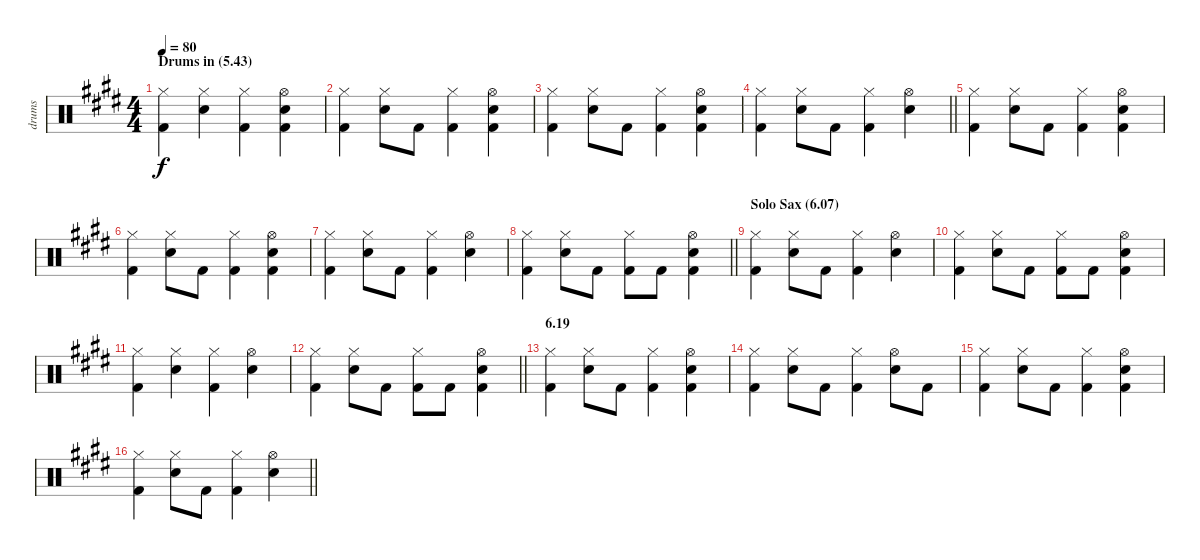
\track ("drums" "drums") {instrument percussion}
\staff {score}
\articulation defaults
\ts (4 4)
\section ("" "Drums in (5.43)")
\tempo 80
\clef neutral
\ks e
("Hi-Hat (closed)" "Kick (hit) 2").4{dy f} ("Hi-Hat (closed)" "Electric Snare (hit)").4 ("Hi-Hat (closed)" "Kick (hit) 2").4 ("Hi-Hat (open)" "Electric Snare (hit)" "Kick (hit) 2").4 |
("Hi-Hat (closed)" "Kick (hit) 2").4 ("Hi-Hat (closed)" "Electric Snare (hit)").8 "Kick (hit) 2".8 ("Hi-Hat (closed)" "Kick (hit) 2").4 ("Hi-Hat (open)" "Electric Snare (hit)" "Kick (hit) 2").4 |
("Hi-Hat (closed)" "Kick (hit) 2").4 ("Hi-Hat (closed)" "Electric Snare (hit)").8 "Kick (hit) 2".8 ("Hi-Hat (closed)" "Kick (hit) 2").4 ("Hi-Hat (open)" "Electric Snare (hit)" "Kick (hit) 2").4 |
\barLineRight lightlight
("Hi-Hat (closed)" "Kick (hit) 2").4 ("Hi-Hat (closed)" "Electric Snare (hit)").8 "Kick (hit) 2".8 ("Hi-Hat (closed)" "Kick (hit) 2").4 ("Hi-Hat (open)" "Electric Snare (hit)").4 |
("Hi-Hat (closed)" "Kick (hit) 2").4 ("Hi-Hat (closed)" "Electric Snare (hit)").8 "Kick (hit) 2".8 ("Hi-Hat (closed)" "Kick (hit) 2").4 ("Hi-Hat (open)" "Electric Snare (hit)" "Kick (hit) 2").4 |
("Hi-Hat (closed)" "Kick (hit) 2").4 ("Hi-Hat (closed)" "Electric Snare (hit)").8 "Kick (hit) 2".8 ("Hi-Hat (closed)" "Kick (hit) 2").4 ("Hi-Hat (open)" "Electric Snare (hit)" "Kick (hit) 2").4 |
("Hi-Hat (closed)" "Kick (hit) 2").4 ("Hi-Hat (closed)" "Electric Snare (hit)").8 "Kick (hit) 2".8 ("Hi-Hat (closed)" "Kick (hit) 2").4 ("Hi-Hat (open)" "Electric Snare (hit)").4 |
\barLineRight lightlight
("Hi-Hat (closed)" "Kick (hit) 2").4 ("Hi-Hat (closed)" "Electric Snare (hit)").8 "Kick (hit) 2".8 ("Hi-Hat (closed)" "Kick (hit) 2").8 "Kick (hit) 2".8 ("Hi-Hat (open)" "Electric Snare (hit)" "Kick (hit) 2").4 |
\section ("" "Solo Sax (6.07)")
("Hi-Hat (closed)" "Kick (hit) 2").4 ("Hi-Hat (closed)" "Electric Snare (hit)").8 "Kick (hit) 2".8 ("Hi-Hat (closed)" "Kick (hit) 2").4 ("Hi-Hat (open)" "Electric Snare (hit)").4 |
("Hi-Hat (closed)" "Kick (hit) 2").4 ("Hi-Hat (closed)" "Electric Snare (hit)").8 "Kick (hit) 2".8 ("Hi-Hat (closed)" "Kick (hit) 2").8 "Kick (hit) 2".8 ("Hi-Hat (open)" "Electric Snare (hit)" "Kick (hit) 2").4 |
("Hi-Hat (closed)" "Kick (hit) 2").4 ("Hi-Hat (closed)" "Electric Snare (hit)").4 ("Hi-Hat (closed)" "Kick (hit) 2").4 ("Hi-Hat (open)" "Electric Snare (hit)").4 |
\barLineRight lightlight
("Hi-Hat (closed)" "Kick (hit) 2").4 ("Hi-Hat (closed)" "Electric Snare (hit)").8 "Kick (hit) 2".8 ("Hi-Hat (closed)" "Kick (hit) 2").8 "Kick (hit) 2".8 ("Hi-Hat (open)" "Electric Snare (hit)" "Kick (hit) 2").4 |
\section ("" "6.19")
("Hi-Hat (closed)" "Kick (hit) 2").4 ("Hi-Hat (closed)" "Electric Snare (hit)").8 "Kick (hit) 2".8 ("Hi-Hat (closed)" "Kick (hit) 2").4 ("Hi-Hat (open)" "Electric Snare (hit)" "Kick (hit) 2").4 |
("Hi-Hat (closed)" "Kick (hit) 2").4 ("Hi-Hat (closed)" "Electric Snare (hit)").8 "Kick (hit) 2".8 ("Hi-Hat (closed)" "Kick (hit) 2").4 ("Hi-Hat (open)" "Electric Snare (hit)").8 "Kick (hit) 2".8 |
("Hi-Hat (closed)" "Kick (hit) 2").4 ("Hi-Hat (closed)" "Electric Snare (hit)").8 "Kick (hit) 2".8 ("Hi-Hat (closed)" "Kick (hit) 2").4 ("Hi-Hat (open)" "Electric Snare (hit)" "Kick (hit) 2").4 |
\barLineRight lightlight
("Hi-Hat (closed)" "Kick (hit) 2").4 ("Hi-Hat (closed)" "Electric Snare (hit)").8 "Kick (hit) 2".8 ("Hi-Hat (closed)" "Kick (hit) 2").4 ("Hi-Hat (open)" "Electric Snare (hit)").4
